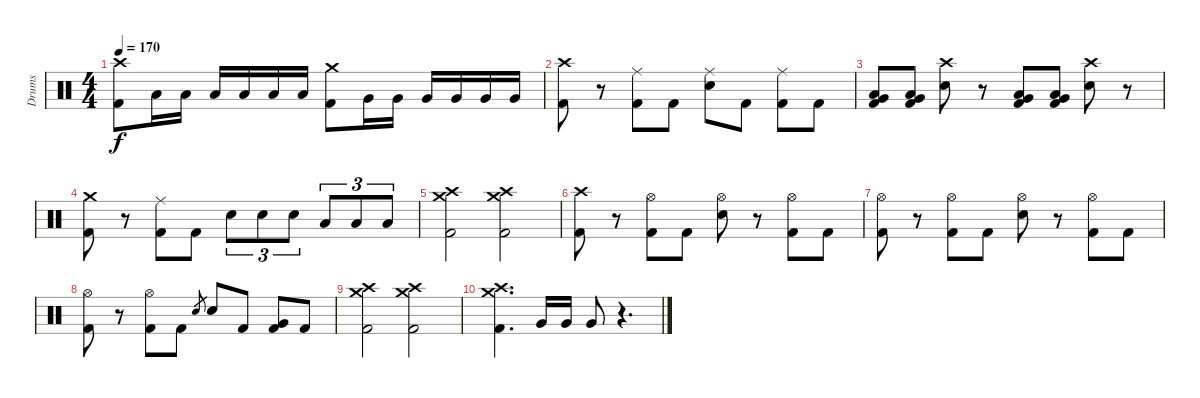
\track ("Drums" "Drums") {instrument percussion}
\staff {score}
\articulation defaults
\ts (4 4)
\tempo 170
\clef neutral
\ks c
("Crash high (hit)" "Kick (hit) 2").8{dy f} "Low Tom (hit)".16 "Low Tom (hit)".16 "Low Tom (hit)".16 "Low Tom (hit)".16 "Low Tom (hit)".16 "Low Tom (hit)".16 ("Crash medium (hit)" "Kick (hit) 2").8 "Very Low Tom (hit)".16 "Very Low Tom (hit)".16 "Very Low Tom (hit)".16 "Very Low Tom (hit)".16 "Very Low Tom (hit)".16 "Very Low Tom (hit)".16 |
("Crash high (hit)" "Kick (hit) 2").8 r.8 ("Ride (middle)" "Kick (hit) 2").8 "Kick (hit) 2".8 ("Ride (middle)" "Electric Snare (hit)").8 "Kick (hit) 2".8 ("Ride (middle)" "Kick (hit) 2").8 "Kick (hit) 2".8 |
("Very Low Tom (hit)" "Low Tom (hit)" "Kick (hit) 2").8 ("Very Low Tom (hit)" "Low Tom (hit)" "Kick (hit) 2").8 ("Crash high (hit)" "Electric Snare (hit)").8 r.8 ("Very Low Tom (hit)" "Low Tom (hit)" "Kick (hit) 2").8 ("Very Low Tom (hit)" "Low Tom (hit)" "Kick (hit) 2").8 ("Crash high (hit)" "Electric Snare (hit)").8 r.8 |
("Crash medium (hit)" "Kick (hit) 2").8 r.8 ("Ride (middle)" "Kick (hit) 2").8 "Kick (hit) 2".8 "Electric Snare (hit)".8{tu (3 2)} "Electric Snare (hit)".8{tu (3 2)} "Electric Snare (hit)".8{tu (3 2)} "Low Tom (hit)".8{tu (3 2)} "Low Tom (hit)".8{tu (3 2)} "Low Tom (hit)".8{tu (3 2)} |
("Crash high (hit)" "Crash medium (hit)" "Kick (hit) 2").2 ("Crash high (hit)" "Crash medium (hit)" "Kick (hit) 2").2 |
("Crash high (hit)" "Kick (hit) 2").8 r.8 ("Hi-Hat (open)" "Kick (hit) 2").8 "Kick (hit) 2".8 ("Hi-Hat (open)" "Electric Snare (hit)").8 r.8 ("Hi-Hat (open)" "Kick (hit) 2").8 "Kick (hit) 2".8 |
("Hi-Hat (open)" "Kick (hit) 2").8 r.8 ("Hi-Hat (open)" "Kick (hit) 2").8 "Kick (hit) 2".8 ("Hi-Hat (open)" "Electric Snare (hit)").8 r.8 ("Hi-Hat (open)" "Kick (hit) 2").8 "Kick (hit) 2".8 |
("Hi-Hat (open)" "Kick (hit) 2").8 r.8 ("Hi-Hat (open)" "Kick (hit) 2").8 "Kick (hit) 2".8 "Electric Snare (hit)".8{gr} "Electric Snare (hit)".8 "Kick (hit) 2".8 ("Very Low Tom (hit)" "Kick (hit) 2").8 "Kick (hit) 2".8 |
("Crash high (hit)" "Crash medium (hit)" "Kick (hit) 2").2 ("Crash high (hit)" "Crash medium (hit)" "Kick (hit) 2").2 |
("Crash high (hit)" "Crash medium (hit)" "Kick (hit) 2").4{d} "Very Low Tom (hit)".16 "Very Low Tom (hit)".16 "Very Low Tom (hit)".8 r.4{d}
